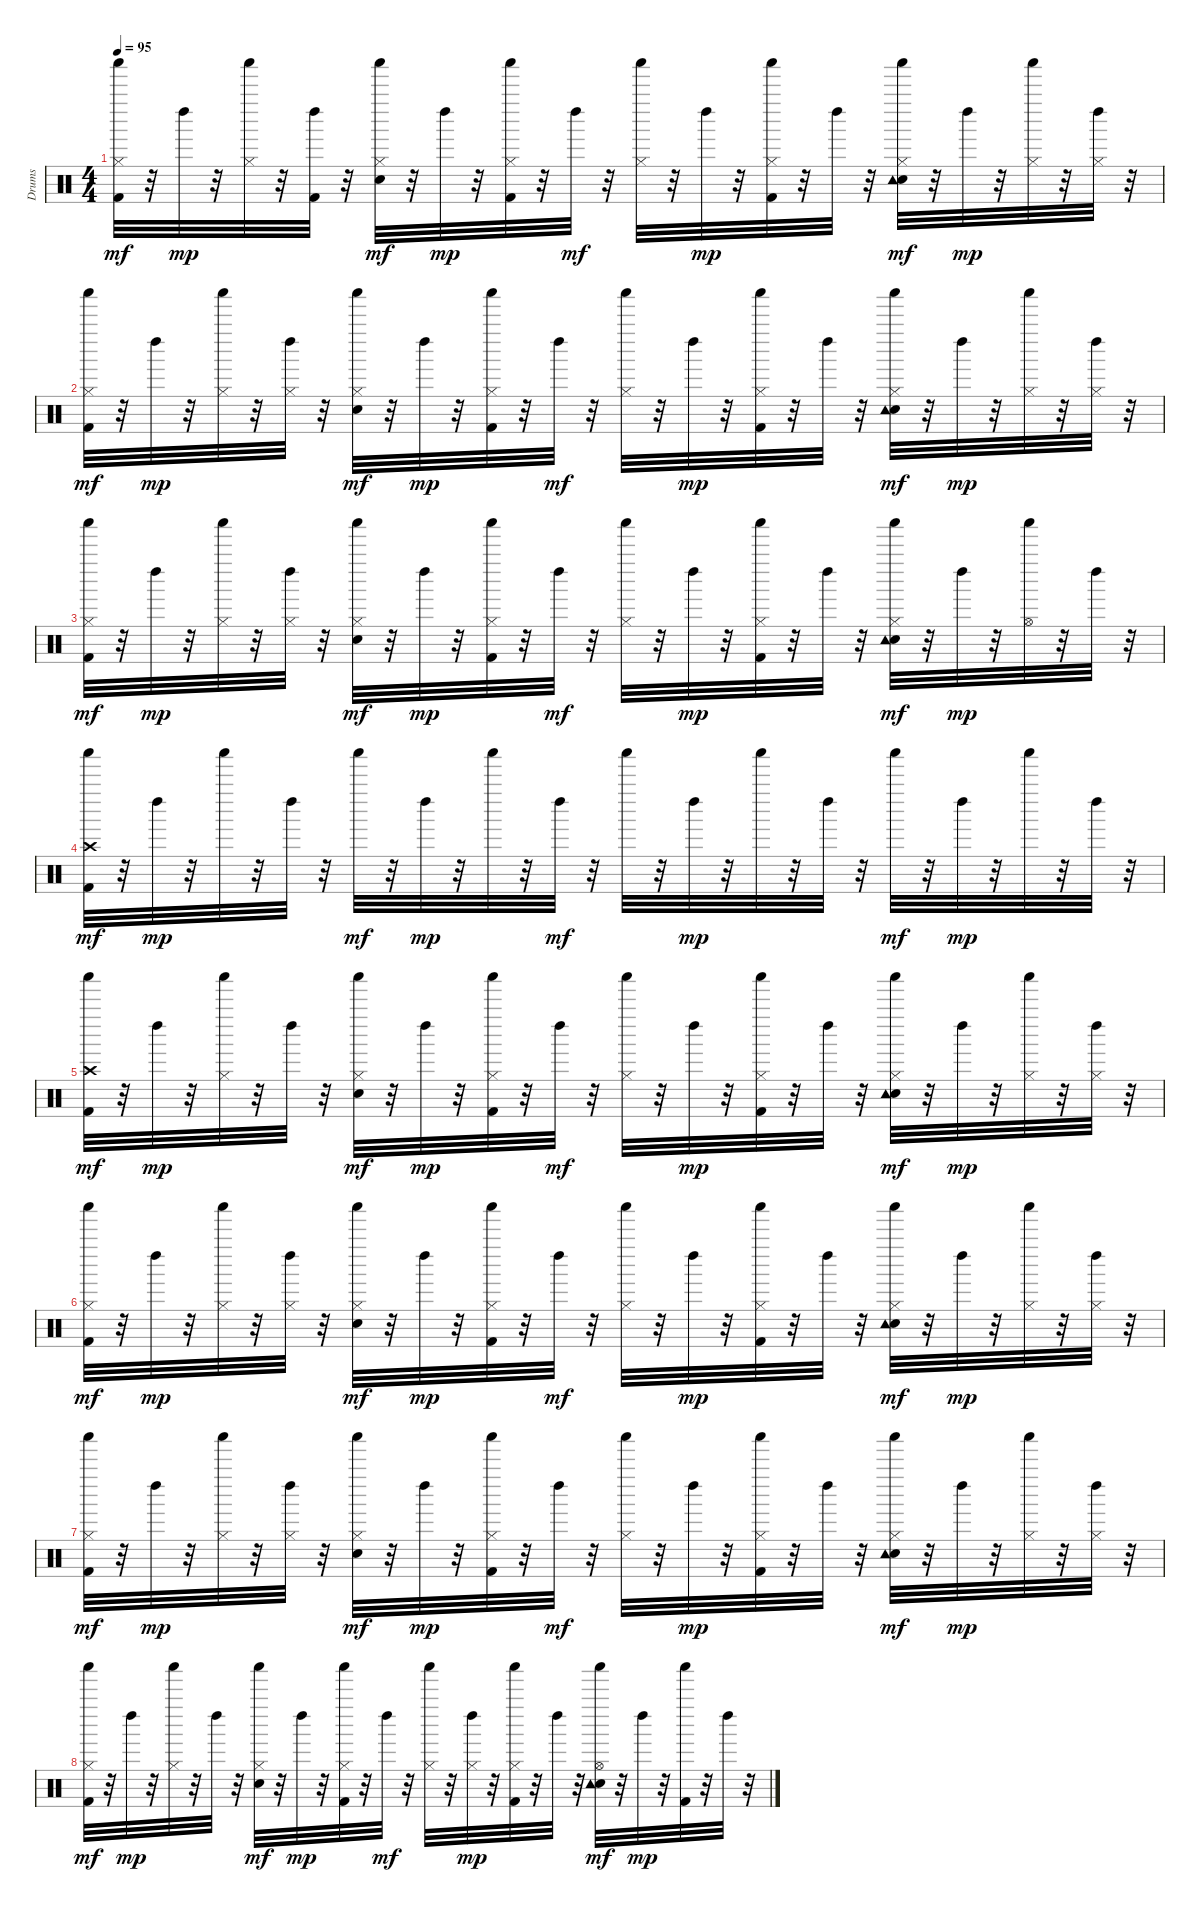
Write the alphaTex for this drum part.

\track ("Drums" "Drums") {instrument percussion}
\staff {score}
\articulation defaults
\ts (4 4)
\tempo 95
\clef neutral
\ks c
("Kick (hit) 2" "Hi-Hat (closed)" "Shaker (hit)").32{dy mf} r.32 "Left Maraca (hit)".32{dy mp} r.32 ("Hi-Hat (closed)" "Shaker (hit)").32 r.32 ("Kick (hit) 2" "Left Maraca (hit)").32 r.32 ("Electric Snare (hit)" "Hi-Hat (closed)" "Shaker (hit)").32{dy mf} r.32 "Left Maraca (hit)".32{dy mp} r.32 ("Kick (hit) 2" "Hi-Hat (closed)" "Shaker (hit)").32 r.32 "Left Maraca (hit)".32{dy mf} r.32 ("Hi-Hat (closed)" "Shaker (hit)").32 r.32 "Left Maraca (hit)".32{dy mp} r.32 ("Kick (hit) 2" "Hi-Hat (closed)" "Shaker (hit)").32 r.32 "Left Maraca (hit)".32 r.32 ("Electric Snare (hit)" "Hi-Hat (closed)" "Tambourine (hit)" "Shaker (hit)").32{dy mf} r.32 "Left Maraca (hit)".32{dy mp} r.32 ("Hi-Hat (closed)" "Shaker (hit)").32 r.32 ("Hi-Hat (closed)" "Left Maraca (hit)").32 r.32 |
("Kick (hit) 2" "Hi-Hat (closed)" "Shaker (hit)").32{dy mf} r.32 "Left Maraca (hit)".32{dy mp} r.32 ("Hi-Hat (closed)" "Shaker (hit)").32 r.32 ("Hi-Hat (closed)" "Left Maraca (hit)").32 r.32 ("Electric Snare (hit)" "Hi-Hat (closed)" "Shaker (hit)").32{dy mf} r.32 "Left Maraca (hit)".32{dy mp} r.32 ("Kick (hit) 2" "Hi-Hat (closed)" "Shaker (hit)").32 r.32 "Left Maraca (hit)".32{dy mf} r.32 ("Hi-Hat (closed)" "Shaker (hit)").32 r.32 "Left Maraca (hit)".32{dy mp} r.32 ("Kick (hit) 2" "Hi-Hat (closed)" "Shaker (hit)").32 r.32 "Left Maraca (hit)".32 r.32 ("Electric Snare (hit)" "Hi-Hat (closed)" "Tambourine (hit)" "Shaker (hit)").32{dy mf} r.32 "Left Maraca (hit)".32{dy mp} r.32 ("Hi-Hat (closed)" "Shaker (hit)").32 r.32 ("Hi-Hat (closed)" "Left Maraca (hit)").32 r.32 |
("Kick (hit) 2" "Hi-Hat (closed)" "Shaker (hit)").32{dy mf} r.32 "Left Maraca (hit)".32{dy mp} r.32 ("Hi-Hat (closed)" "Shaker (hit)").32 r.32 ("Hi-Hat (closed)" "Left Maraca (hit)").32 r.32 ("Electric Snare (hit)" "Hi-Hat (closed)" "Shaker (hit)").32{dy mf} r.32 "Left Maraca (hit)".32{dy mp} r.32 ("Kick (hit) 2" "Hi-Hat (closed)" "Shaker (hit)").32 r.32 "Left Maraca (hit)".32{dy mf} r.32 ("Hi-Hat (closed)" "Shaker (hit)").32 r.32 "Left Maraca (hit)".32{dy mp} r.32 ("Kick (hit) 2" "Hi-Hat (closed)" "Shaker (hit)").32 r.32 "Left Maraca (hit)".32 r.32 ("Electric Snare (hit)" "Hi-Hat (closed)" "Tambourine (hit)" "Shaker (hit)").32{dy mf} r.32 "Left Maraca (hit)".32{dy mp} r.32 ("Hi-Hat (open)" "Shaker (hit)").32 r.32 "Left Maraca (hit)".32 r.32 |
("Kick (hit) 2" "Crash high (hit)" "Shaker (hit)").32{dy mf} r.32 "Left Maraca (hit)".32{dy mp} r.32 "Shaker (hit)".32 r.32 "Left Maraca (hit)".32 r.32 "Shaker (hit)".32{dy mf} r.32 "Left Maraca (hit)".32{dy mp} r.32 "Shaker (hit)".32 r.32 "Left Maraca (hit)".32{dy mf} r.32 "Shaker (hit)".32 r.32 "Left Maraca (hit)".32{dy mp} r.32 "Shaker (hit)".32 r.32 "Left Maraca (hit)".32 r.32 "Shaker (hit)".32{dy mf} r.32 "Left Maraca (hit)".32{dy mp} r.32 "Shaker (hit)".32 r.32 "Left Maraca (hit)".32 r.32 |
("Kick (hit) 2" "Crash high (hit)" "Shaker (hit)").32{dy mf} r.32 "Left Maraca (hit)".32{dy mp} r.32 ("Hi-Hat (closed)" "Shaker (hit)").32 r.32 "Left Maraca (hit)".32 r.32 ("Electric Snare (hit)" "Hi-Hat (closed)" "Shaker (hit)").32{dy mf} r.32 "Left Maraca (hit)".32{dy mp} r.32 ("Kick (hit) 2" "Hi-Hat (closed)" "Shaker (hit)").32 r.32 "Left Maraca (hit)".32{dy mf} r.32 ("Hi-Hat (closed)" "Shaker (hit)").32 r.32 "Left Maraca (hit)".32{dy mp} r.32 ("Kick (hit) 2" "Hi-Hat (closed)" "Shaker (hit)").32 r.32 "Left Maraca (hit)".32 r.32 ("Electric Snare (hit)" "Hi-Hat (closed)" "Tambourine (hit)" "Shaker (hit)").32{dy mf} r.32 "Left Maraca (hit)".32{dy mp} r.32 ("Hi-Hat (closed)" "Shaker (hit)").32 r.32 ("Hi-Hat (closed)" "Left Maraca (hit)").32 r.32 |
("Kick (hit) 2" "Hi-Hat (closed)" "Shaker (hit)").32{dy mf} r.32 "Left Maraca (hit)".32{dy mp} r.32 ("Hi-Hat (closed)" "Shaker (hit)").32 r.32 ("Hi-Hat (closed)" "Left Maraca (hit)").32 r.32 ("Electric Snare (hit)" "Hi-Hat (closed)" "Shaker (hit)").32{dy mf} r.32 "Left Maraca (hit)".32{dy mp} r.32 ("Kick (hit) 2" "Hi-Hat (closed)" "Shaker (hit)").32 r.32 "Left Maraca (hit)".32{dy mf} r.32 ("Hi-Hat (closed)" "Shaker (hit)").32 r.32 "Left Maraca (hit)".32{dy mp} r.32 ("Kick (hit) 2" "Hi-Hat (closed)" "Shaker (hit)").32 r.32 "Left Maraca (hit)".32 r.32 ("Electric Snare (hit)" "Hi-Hat (closed)" "Tambourine (hit)" "Shaker (hit)").32{dy mf} r.32 "Left Maraca (hit)".32{dy mp} r.32 ("Hi-Hat (closed)" "Shaker (hit)").32 r.32 ("Hi-Hat (closed)" "Left Maraca (hit)").32 r.32 |
("Kick (hit) 2" "Hi-Hat (closed)" "Shaker (hit)").32{dy mf} r.32 "Left Maraca (hit)".32{dy mp} r.32 ("Hi-Hat (closed)" "Shaker (hit)").32 r.32 ("Hi-Hat (closed)" "Left Maraca (hit)").32 r.32 ("Electric Snare (hit)" "Hi-Hat (closed)" "Shaker (hit)").32{dy mf} r.32 "Left Maraca (hit)".32{dy mp} r.32 ("Kick (hit) 2" "Hi-Hat (closed)" "Shaker (hit)").32 r.32 "Left Maraca (hit)".32{dy mf} r.32 ("Hi-Hat (closed)" "Shaker (hit)").32 r.32 "Left Maraca (hit)".32{dy mp} r.32 ("Kick (hit) 2" "Hi-Hat (closed)" "Shaker (hit)").32 r.32 "Left Maraca (hit)".32 r.32 ("Electric Snare (hit)" "Hi-Hat (closed)" "Tambourine (hit)" "Shaker (hit)").32{dy mf} r.32 "Left Maraca (hit)".32{dy mp} r.32 ("Hi-Hat (closed)" "Shaker (hit)").32 r.32 ("Hi-Hat (closed)" "Left Maraca (hit)").32 r.32 |
("Kick (hit) 2" "Hi-Hat (closed)" "Shaker (hit)").32{dy mf} r.32 "Left Maraca (hit)".32{dy mp} r.32 ("Hi-Hat (closed)" "Shaker (hit)").32 r.32 "Left Maraca (hit)".32 r.32 ("Electric Snare (hit)" "Hi-Hat (closed)" "Shaker (hit)").32{dy mf} r.32 "Left Maraca (hit)".32{dy mp} r.32 ("Kick (hit) 2" "Hi-Hat (closed)" "Shaker (hit)").32 r.32 "Left Maraca (hit)".32{dy mf} r.32 ("Hi-Hat (closed)" "Shaker (hit)").32 r.32 ("Hi-Hat (closed)" "Left Maraca (hit)").32{dy mp} r.32 ("Kick (hit) 2" "Hi-Hat (closed)" "Shaker (hit)").32 r.32 "Left Maraca (hit)".32 r.32 ("Electric Snare (hit)" "Hi-Hat (open)" "Tambourine (hit)" "Shaker (hit)").32{dy mf} r.32 "Left Maraca (hit)".32{dy mp} r.32 ("Kick (hit) 2" "Shaker (hit)").32 r.32 "Left Maraca (hit)".32 r.32
